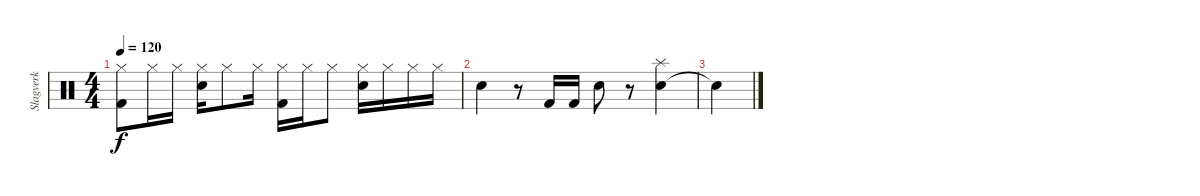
\track ("Slagverk" "Slagverk") {instrument percussion}
\staff {score}
\articulation defaults
\ts (4 4)
\tempo 120
\clef neutral
\ks c
("Hi-Hat (closed)" "Kick (hit) 2").8{dy f} "Hi-Hat (closed)".16 "Hi-Hat (closed)".16 ("Hi-Hat (closed)" "Snare (hit) 2").16 "Hi-Hat (closed)".8 "Hi-Hat (closed)".16 ("Hi-Hat (closed)" "Kick (hit) 2").16 "Hi-Hat (closed)".16 "Hi-Hat (closed)".8 ("Hi-Hat (closed)" "Snare (hit) 2").16 "Hi-Hat (closed)".16 "Hi-Hat (closed)".16 "Hi-Hat (closed)".16 |
"Snare (hit) 2".4{volume 11} r.8 "Kick (hit) 2".16 "Kick (hit) 2".16 "Snare (hit) 2".8 r.8 ("Snare (hit) 2" "Splash (hit)").4 |
"Snare (hit)"{t}.4
